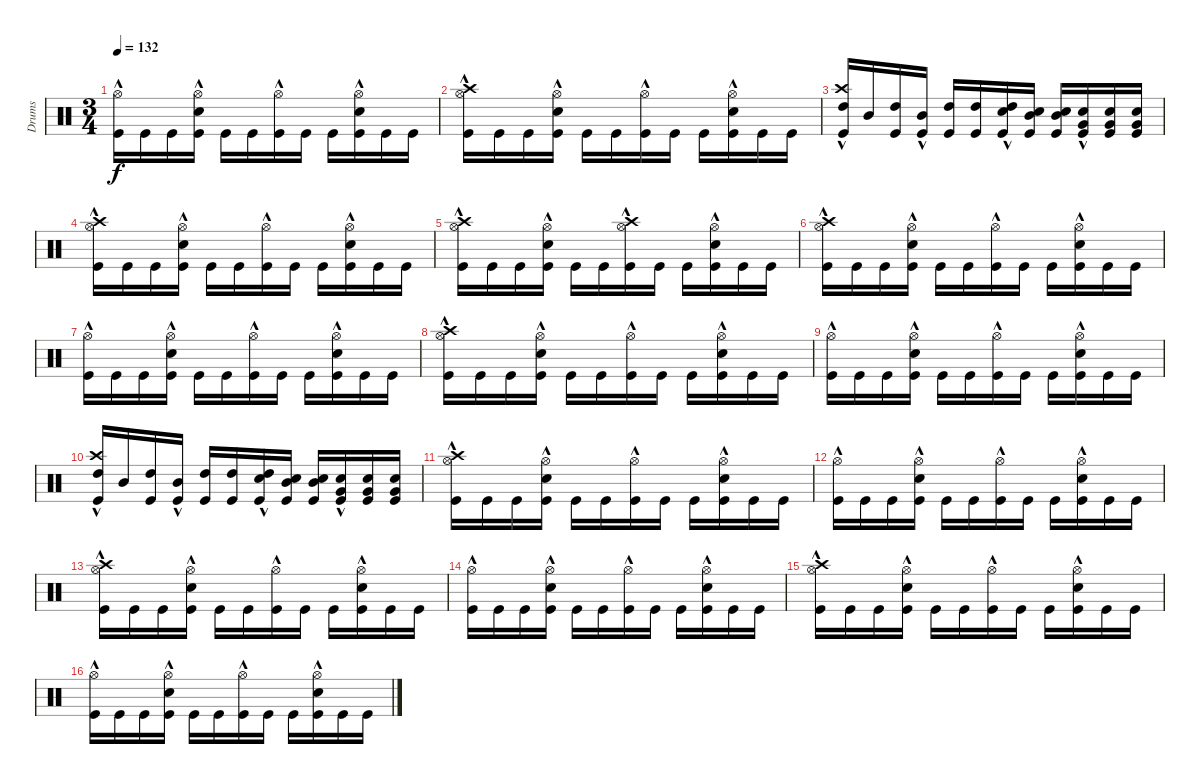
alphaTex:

\track ("Drums" "Drums") {instrument percussion}
\staff {score}
\articulation defaults
\ts (3 4)
\tempo 132
\clef neutral
\ks c
("Hi-Hat (open)"{hac} "Kick (hit)").16{dy f} "Kick (hit)".16 "Kick (hit)".16 ("Hi-Hat (open)"{hac} "Kick (hit)" "Electric Snare (hit)").16 "Kick (hit)".16 "Kick (hit)".16 ("Hi-Hat (open)"{hac} "Kick (hit)").16 "Kick (hit)".16 "Kick (hit)".16 ("Hi-Hat (open)"{hac} "Kick (hit)" "Electric Snare (hit)").16 "Kick (hit)".16 "Kick (hit)".16 |
("Crash high (hit)" "Hi-Hat (open)"{hac} "Kick (hit)").16 "Kick (hit)".16 "Kick (hit)".16 ("Hi-Hat (open)"{hac} "Kick (hit)" "Electric Snare (hit)").16 "Kick (hit)".16 "Kick (hit)".16 ("Hi-Hat (open)"{hac} "Kick (hit)").16 "Kick (hit)".16 "Kick (hit)".16 ("Hi-Hat (open)"{hac} "Kick (hit)" "Electric Snare (hit)").16 "Kick (hit)".16 "Kick (hit)".16 |
("High Tom (hit)"{hac} "Crash high (hit)" "Kick (hit)").16 "Mid Tom (hit)".16 ("High Tom (hit)" "Kick (hit)").16 ("Mid Tom (hit)"{hac} "Kick (hit)").16 ("High Tom (hit)" "Kick (hit)").16 ("High Tom (hit)" "Kick (hit)").16 ("High Tom (hit)"{hac} "Snare (hit) 2" "Kick (hit)").16 ("Mid Tom (hit)" "Snare (hit) 2" "Kick (hit)").16 ("Mid Tom (hit)" "Snare (hit) 2" "Kick (hit)").16 ("Very Low Tom (hit)"{hac} "Snare (hit) 2" "Kick (hit)").16 ("Very Low Tom (hit)" "Snare (hit) 2" "Kick (hit)").16 ("Very Low Tom (hit)" "Snare (hit) 2" "Kick (hit)").16 |
("Crash high (hit)" "Hi-Hat (open)"{hac} "Kick (hit)").16 "Kick (hit)".16 "Kick (hit)".16 ("Hi-Hat (open)"{hac} "Kick (hit)" "Electric Snare (hit)").16 "Kick (hit)".16 "Kick (hit)".16 ("Hi-Hat (open)"{hac} "Kick (hit)").16 "Kick (hit)".16 "Kick (hit)".16 ("Hi-Hat (open)"{hac} "Kick (hit)" "Electric Snare (hit)").16 "Kick (hit)".16 "Kick (hit)".16 |
("Hi-Hat (open)"{hac} "Kick (hit)" "Crash high (hit)").16 "Kick (hit)".16 "Kick (hit)".16 ("Hi-Hat (open)"{hac} "Kick (hit)" "Electric Snare (hit)").16 "Kick (hit)".16 "Kick (hit)".16 ("Hi-Hat (open)"{hac} "Kick (hit)" "Crash high (hit)").16 "Kick (hit)".16 "Kick (hit)".16 ("Hi-Hat (open)"{hac} "Kick (hit)" "Electric Snare (hit)").16 "Kick (hit)".16 "Kick (hit)".16 |
("Crash high (hit)" "Hi-Hat (open)"{hac} "Kick (hit)").16 "Kick (hit)".16 "Kick (hit)".16 ("Hi-Hat (open)"{hac} "Kick (hit)" "Electric Snare (hit)").16 "Kick (hit)".16 "Kick (hit)".16 ("Hi-Hat (open)"{hac} "Kick (hit)").16 "Kick (hit)".16 "Kick (hit)".16 ("Hi-Hat (open)"{hac} "Kick (hit)" "Electric Snare (hit)").16 "Kick (hit)".16 "Kick (hit)".16 |
("Hi-Hat (open)"{hac} "Kick (hit)").16 "Kick (hit)".16 "Kick (hit)".16 ("Hi-Hat (open)"{hac} "Kick (hit)" "Electric Snare (hit)").16 "Kick (hit)".16 "Kick (hit)".16 ("Hi-Hat (open)"{hac} "Kick (hit)").16 "Kick (hit)".16 "Kick (hit)".16 ("Hi-Hat (open)"{hac} "Kick (hit)" "Electric Snare (hit)").16 "Kick (hit)".16 "Kick (hit)".16 |
("Crash high (hit)" "Hi-Hat (open)"{hac} "Kick (hit)").16 "Kick (hit)".16 "Kick (hit)".16 ("Hi-Hat (open)"{hac} "Kick (hit)" "Electric Snare (hit)").16 "Kick (hit)".16 "Kick (hit)".16 ("Hi-Hat (open)"{hac} "Kick (hit)").16 "Kick (hit)".16 "Kick (hit)".16 ("Hi-Hat (open)"{hac} "Kick (hit)" "Electric Snare (hit)").16 "Kick (hit)".16 "Kick (hit)".16 |
("Hi-Hat (open)"{hac} "Kick (hit)").16 "Kick (hit)".16 "Kick (hit)".16 ("Hi-Hat (open)"{hac} "Kick (hit)" "Electric Snare (hit)").16 "Kick (hit)".16 "Kick (hit)".16 ("Hi-Hat (open)"{hac} "Kick (hit)").16 "Kick (hit)".16 "Kick (hit)".16 ("Hi-Hat (open)"{hac} "Kick (hit)" "Electric Snare (hit)").16 "Kick (hit)".16 "Kick (hit)".16 |
("High Tom (hit)"{hac} "Crash high (hit)" "Kick (hit)").16 "Mid Tom (hit)".16 ("High Tom (hit)" "Kick (hit)").16 ("Mid Tom (hit)"{hac} "Kick (hit)").16 ("High Tom (hit)" "Kick (hit)").16 ("High Tom (hit)" "Kick (hit)").16 ("High Tom (hit)"{hac} "Snare (hit) 2" "Kick (hit)").16 ("Mid Tom (hit)" "Snare (hit) 2" "Kick (hit)").16 ("Mid Tom (hit)" "Snare (hit) 2" "Kick (hit)").16 ("Very Low Tom (hit)"{hac} "Snare (hit) 2" "Kick (hit)").16 ("Very Low Tom (hit)" "Snare (hit) 2" "Kick (hit)").16 ("Very Low Tom (hit)" "Snare (hit) 2" "Kick (hit)").16 |
("Crash high (hit)" "Hi-Hat (open)"{hac} "Kick (hit)").16 "Kick (hit)".16 "Kick (hit)".16 ("Hi-Hat (open)"{hac} "Kick (hit)" "Electric Snare (hit)").16 "Kick (hit)".16 "Kick (hit)".16 ("Hi-Hat (open)"{hac} "Kick (hit)").16 "Kick (hit)".16 "Kick (hit)".16 ("Hi-Hat (open)"{hac} "Kick (hit)" "Electric Snare (hit)").16 "Kick (hit)".16 "Kick (hit)".16 |
("Hi-Hat (open)"{hac} "Kick (hit)").16 "Kick (hit)".16 "Kick (hit)".16 ("Hi-Hat (open)"{hac} "Kick (hit)" "Electric Snare (hit)").16 "Kick (hit)".16 "Kick (hit)".16 ("Hi-Hat (open)"{hac} "Kick (hit)").16 "Kick (hit)".16 "Kick (hit)".16 ("Hi-Hat (open)"{hac} "Kick (hit)" "Electric Snare (hit)").16 "Kick (hit)".16 "Kick (hit)".16 |
("Crash high (hit)" "Hi-Hat (open)"{hac} "Kick (hit)").16 "Kick (hit)".16 "Kick (hit)".16 ("Hi-Hat (open)"{hac} "Kick (hit)" "Electric Snare (hit)").16 "Kick (hit)".16 "Kick (hit)".16 ("Hi-Hat (open)"{hac} "Kick (hit)").16 "Kick (hit)".16 "Kick (hit)".16 ("Hi-Hat (open)"{hac} "Kick (hit)" "Electric Snare (hit)").16 "Kick (hit)".16 "Kick (hit)".16 |
("Hi-Hat (open)"{hac} "Kick (hit)").16 "Kick (hit)".16 "Kick (hit)".16 ("Hi-Hat (open)"{hac} "Kick (hit)" "Electric Snare (hit)").16 "Kick (hit)".16 "Kick (hit)".16 ("Hi-Hat (open)"{hac} "Kick (hit)").16 "Kick (hit)".16 "Kick (hit)".16 ("Hi-Hat (open)"{hac} "Kick (hit)" "Electric Snare (hit)").16 "Kick (hit)".16 "Kick (hit)".16 |
("Crash high (hit)" "Hi-Hat (open)"{hac} "Kick (hit)").16 "Kick (hit)".16 "Kick (hit)".16 ("Hi-Hat (open)"{hac} "Kick (hit)" "Electric Snare (hit)").16 "Kick (hit)".16 "Kick (hit)".16 ("Hi-Hat (open)"{hac} "Kick (hit)").16 "Kick (hit)".16 "Kick (hit)".16 ("Hi-Hat (open)"{hac} "Kick (hit)" "Electric Snare (hit)").16 "Kick (hit)".16 "Kick (hit)".16 |
("Hi-Hat (open)"{hac} "Kick (hit)").16 "Kick (hit)".16 "Kick (hit)".16 ("Hi-Hat (open)"{hac} "Kick (hit)" "Electric Snare (hit)").16 "Kick (hit)".16 "Kick (hit)".16 ("Hi-Hat (open)"{hac} "Kick (hit)").16 "Kick (hit)".16 "Kick (hit)".16 ("Hi-Hat (open)"{hac} "Kick (hit)" "Electric Snare (hit)").16 "Kick (hit)".16 "Kick (hit)".16
